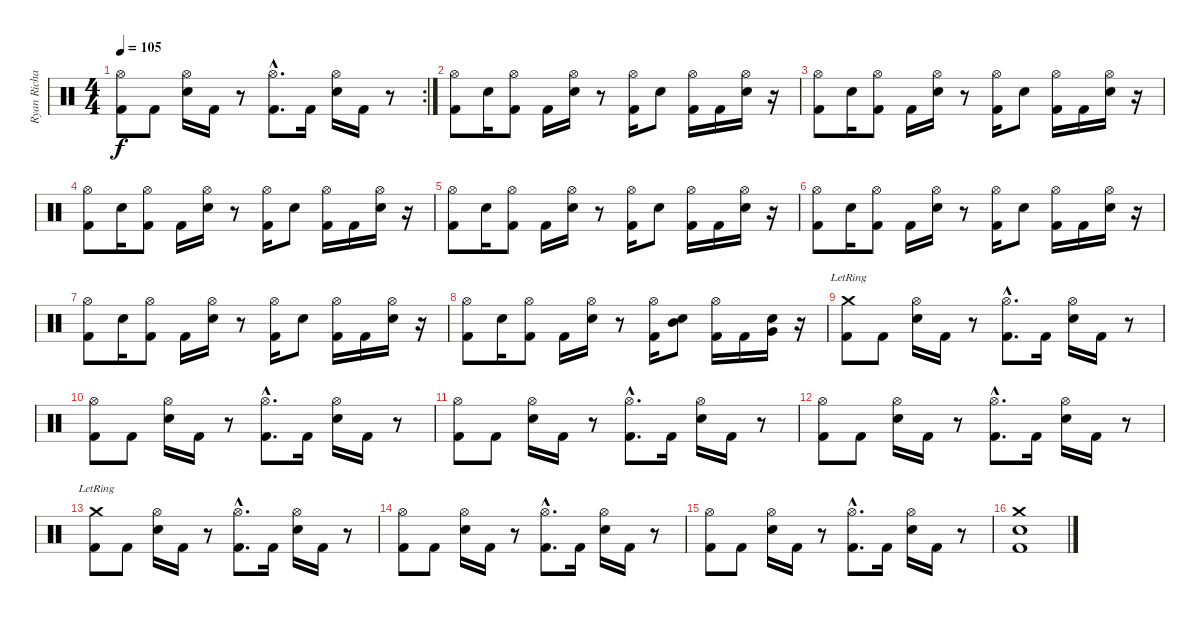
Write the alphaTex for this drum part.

\track ("Ryan Richards" "Ryan Richa") {instrument percussion}
\staff {score}
\articulation defaults
\rc 2
\ts (4 4)
\tempo 105
\clef neutral
\ks c
("Hi-Hat (open)" "Kick (hit) 2").8{dy f} "Kick (hit) 2".8 ("Hi-Hat (open)" "Snare (hit) 2").16 "Kick (hit) 2".16 r.8 ("Hi-Hat (open)"{hac} "Kick (hit) 2"{hac}).8{d} "Kick (hit) 2".16 ("Hi-Hat (open)" "Snare (hit) 2").16 "Kick (hit) 2".16 r.8 |
("Hi-Hat (open)" "Kick (hit) 2").8 "Snare (hit) 2".16 ("Hi-Hat (open)" "Kick (hit) 2").8 "Kick (hit) 2".16 ("Hi-Hat (open)" "Snare (hit) 2").16 r.8 ("Hi-Hat (open)" "Kick (hit) 2").16 "Snare (hit) 2".8 ("Hi-Hat (open)" "Kick (hit) 2").16 "Kick (hit) 2".16 ("Hi-Hat (open)" "Snare (hit) 2").16 r.16 |
("Hi-Hat (open)" "Kick (hit) 2").8 "Snare (hit) 2".16 ("Hi-Hat (open)" "Kick (hit) 2").8 "Kick (hit) 2".16 ("Hi-Hat (open)" "Snare (hit) 2").16 r.8 ("Hi-Hat (open)" "Kick (hit) 2").16 "Snare (hit) 2".8 ("Hi-Hat (open)" "Kick (hit) 2").16 "Kick (hit) 2".16 ("Hi-Hat (open)" "Snare (hit) 2").16 r.16 |
("Hi-Hat (open)" "Kick (hit) 2").8 "Snare (hit) 2".16 ("Hi-Hat (open)" "Kick (hit) 2").8 "Kick (hit) 2".16 ("Hi-Hat (open)" "Snare (hit) 2").16 r.8 ("Hi-Hat (open)" "Kick (hit) 2").16 "Snare (hit) 2".8 ("Hi-Hat (open)" "Kick (hit) 2").16 "Kick (hit) 2".16 ("Hi-Hat (open)" "Snare (hit) 2").16 r.16 |
("Hi-Hat (open)" "Kick (hit) 2").8 "Snare (hit) 2".16 ("Hi-Hat (open)" "Kick (hit) 2").8 "Kick (hit) 2".16 ("Hi-Hat (open)" "Snare (hit) 2").16 r.8 ("Hi-Hat (open)" "Kick (hit) 2").16 "Snare (hit) 2".8 ("Hi-Hat (open)" "Kick (hit) 2").16 "Kick (hit) 2".16 ("Hi-Hat (open)" "Snare (hit) 2").16 r.16 |
("Hi-Hat (open)" "Kick (hit) 2").8 "Snare (hit) 2".16 ("Hi-Hat (open)" "Kick (hit) 2").8 "Kick (hit) 2".16 ("Hi-Hat (open)" "Snare (hit) 2").16 r.8 ("Hi-Hat (open)" "Kick (hit) 2").16 "Snare (hit) 2".8 ("Hi-Hat (open)" "Kick (hit) 2").16 "Kick (hit) 2".16 ("Hi-Hat (open)" "Snare (hit) 2").16 r.16 |
("Hi-Hat (open)" "Kick (hit) 2").8 "Snare (hit) 2".16 ("Hi-Hat (open)" "Kick (hit) 2").8 "Kick (hit) 2".16 ("Hi-Hat (open)" "Snare (hit) 2").16 r.8 ("Hi-Hat (open)" "Kick (hit) 2").16 "Snare (hit) 2".8 ("Hi-Hat (open)" "Kick (hit) 2").16 "Kick (hit) 2".16 ("Hi-Hat (open)" "Snare (hit) 2").16 r.16 |
("Hi-Hat (open)" "Kick (hit) 2").8 "Snare (hit) 2".16 ("Hi-Hat (open)" "Kick (hit) 2").8 "Kick (hit) 2".16 ("Hi-Hat (open)" "Snare (hit) 2").16 r.8 ("Hi-Hat (open)" "Kick (hit) 2").16 ("Mid Tom (hit)" "Snare (hit) 2").8 ("Hi-Hat (open)" "Kick (hit) 2").16 "Kick (hit) 2".16 ("Very Low Tom (hit)" "Snare (hit) 2").16 r.16 |
("Crash medium (hit)"{lr} "Kick (hit) 2").8 "Kick (hit) 2".8 ("Hi-Hat (open)" "Snare (hit) 2").16 "Kick (hit) 2".16 r.8 ("Hi-Hat (open)"{hac} "Kick (hit) 2"{hac}).8{d} "Kick (hit) 2".16 ("Hi-Hat (open)" "Snare (hit) 2").16 "Kick (hit) 2".16 r.8 |
("Hi-Hat (open)" "Kick (hit) 2").8 "Kick (hit) 2".8 ("Hi-Hat (open)" "Snare (hit) 2").16 "Kick (hit) 2".16 r.8 ("Hi-Hat (open)"{hac} "Kick (hit) 2"{hac}).8{d} "Kick (hit) 2".16 ("Hi-Hat (open)" "Snare (hit) 2").16 "Kick (hit) 2".16 r.8 |
("Hi-Hat (open)" "Kick (hit) 2").8 "Kick (hit) 2".8 ("Hi-Hat (open)" "Snare (hit) 2").16 "Kick (hit) 2".16 r.8 ("Hi-Hat (open)"{hac} "Kick (hit) 2"{hac}).8{d} "Kick (hit) 2".16 ("Hi-Hat (open)" "Snare (hit) 2").16 "Kick (hit) 2".16 r.8 |
("Hi-Hat (open)" "Kick (hit) 2").8 "Kick (hit) 2".8 ("Hi-Hat (open)" "Snare (hit) 2").16 "Kick (hit) 2".16 r.8 ("Hi-Hat (open)"{hac} "Kick (hit) 2"{hac}).8{d} "Kick (hit) 2".16 ("Hi-Hat (open)" "Snare (hit) 2").16 "Kick (hit) 2".16 r.8 |
("Crash medium (hit)"{lr} "Kick (hit) 2").8 "Kick (hit) 2".8 ("Hi-Hat (open)" "Snare (hit) 2").16 "Kick (hit) 2".16 r.8 ("Hi-Hat (open)"{hac} "Kick (hit) 2"{hac}).8{d} "Kick (hit) 2".16 ("Hi-Hat (open)" "Snare (hit) 2").16 "Kick (hit) 2".16 r.8 |
("Hi-Hat (open)" "Kick (hit) 2").8 "Kick (hit) 2".8 ("Hi-Hat (open)" "Snare (hit) 2").16 "Kick (hit) 2".16 r.8 ("Hi-Hat (open)"{hac} "Kick (hit) 2"{hac}).8{d} "Kick (hit) 2".16 ("Hi-Hat (open)" "Snare (hit) 2").16 "Kick (hit) 2".16 r.8 |
("Hi-Hat (open)" "Kick (hit) 2").8 "Kick (hit) 2".8 ("Hi-Hat (open)" "Snare (hit) 2").16 "Kick (hit) 2".16 r.8 ("Hi-Hat (open)"{hac} "Kick (hit) 2"{hac}).8{d} "Kick (hit) 2".16 ("Hi-Hat (open)" "Snare (hit) 2").16 "Kick (hit) 2".16 r.8 |
("Crash medium (hit)" "Snare (hit) 2" "Kick (hit) 2").1
